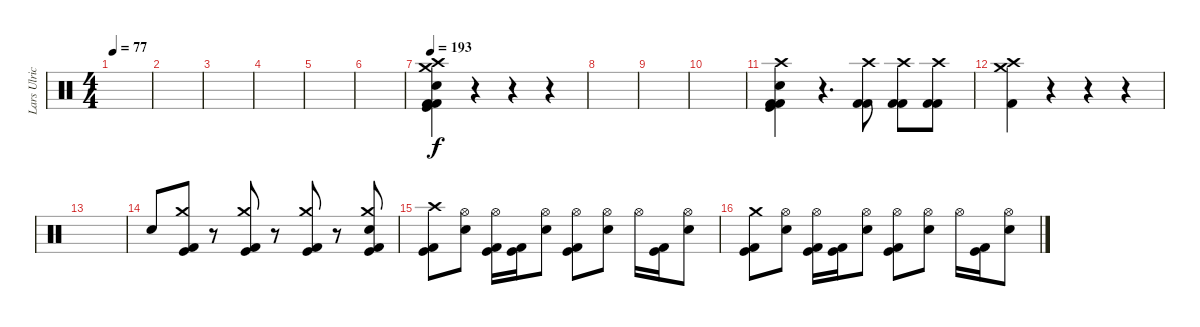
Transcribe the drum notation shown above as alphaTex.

\track ("Lars Ulrich" "Lars Ulric") {instrument percussion}
\staff {score}
\articulation defaults
\ts (4 4)
\tempo 77
\clef neutral
\ks c
|
|
|
|
|
|
\tempo 193
("Crash high (hit)" "Electric Snare (hit)" "Kick (hit) 2" "Crash medium (hit)" "Kick (hit)" "Kick (hit) 2").4 r.4 r.4 r.4 |
|
|
|
("Crash high (hit)" "Electric Snare (hit)" "Kick (hit) 2" "Kick (hit)" "Kick (hit) 2").4 r.4{d} ("Crash high (hit)" "Kick (hit) 2" "Kick (hit) 2").8 ("Crash high (hit)" "Kick (hit) 2" "Kick (hit) 2").8 ("Crash high (hit)" "Kick (hit) 2" "Kick (hit) 2").8 |
("Crash medium (hit)" "Crash high (hit)" "Kick (hit) 2").4 r.4 r.4 r.4 |
|
"Electric Snare (hit)".8 ("Crash medium (hit)" "Kick (hit) 2" "Kick (hit)").8 r.8 ("Crash medium (hit)" "Kick (hit)" "Kick (hit) 2").8 r.8 ("Crash medium (hit)" "Kick (hit)" "Kick (hit) 2").8 r.8 ("Crash medium (hit)" "Electric Snare (hit)" "Kick (hit)" "Kick (hit) 2").8 |
("Crash high (hit)" "Kick (hit) 2" "Kick (hit)").8 ("Hi-Hat (open)" "Electric Snare (hit)").8 ("Hi-Hat (open)" "Kick (hit) 2" "Kick (hit)").16 ("Kick (hit) 2" "Kick (hit)").16 ("Hi-Hat (open)" "Electric Snare (hit)").8 ("Hi-Hat (open)" "Kick (hit) 2" "Kick (hit)").8 ("Hi-Hat (open)" "Electric Snare (hit)").8 "Hi-Hat (open)".16 ("Kick (hit) 2" "Kick (hit)").16 ("Hi-Hat (open)" "Electric Snare (hit)").8 |
("Crash medium (hit)" "Kick (hit) 2" "Kick (hit)").8 ("Hi-Hat (open)" "Electric Snare (hit)").8 ("Hi-Hat (open)" "Kick (hit) 2" "Kick (hit)").16 ("Kick (hit) 2" "Kick (hit)").16 ("Hi-Hat (open)" "Electric Snare (hit)").8 ("Hi-Hat (open)" "Kick (hit) 2" "Kick (hit)").8 ("Hi-Hat (open)" "Electric Snare (hit)").8 "Hi-Hat (open)".16 ("Kick (hit) 2" "Kick (hit)").16 ("Hi-Hat (open)" "Electric Snare (hit)").8
